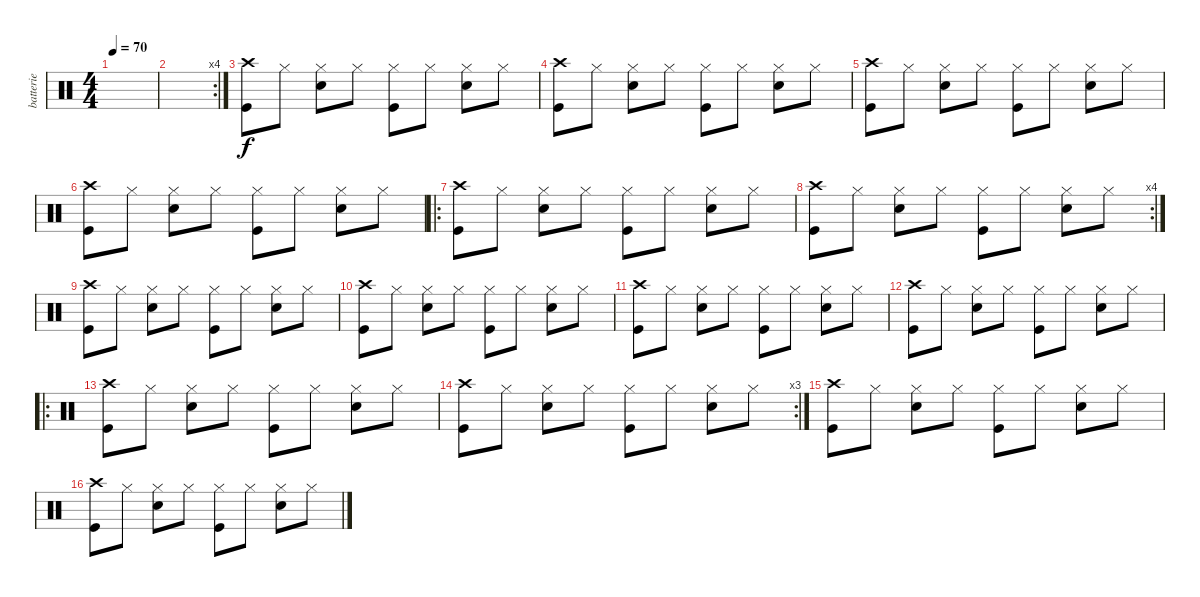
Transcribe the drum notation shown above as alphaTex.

\track ("batterie" "batterie") {instrument percussion}
\staff {score}
\articulation defaults
\ts (4 4)
\tempo 70
\clef neutral
\ks c
|
\rc 4
|
("Crash high (hit)" "Kick (hit)").8 "Hi-Hat (closed)".8 ("Hi-Hat (closed)" "Snare (hit) 2").8 "Hi-Hat (closed)".8 ("Hi-Hat (closed)" "Kick (hit)").8 "Hi-Hat (closed)".8 ("Hi-Hat (closed)" "Snare (hit) 2").8 "Hi-Hat (closed)".8 |
("Crash high (hit)" "Kick (hit)").8 "Hi-Hat (closed)".8 ("Hi-Hat (closed)" "Snare (hit) 2").8 "Hi-Hat (closed)".8 ("Hi-Hat (closed)" "Kick (hit)").8 "Hi-Hat (closed)".8 ("Hi-Hat (closed)" "Snare (hit) 2").8 "Hi-Hat (closed)".8 |
("Crash high (hit)" "Kick (hit)").8 "Hi-Hat (closed)".8 ("Hi-Hat (closed)" "Snare (hit) 2").8 "Hi-Hat (closed)".8 ("Hi-Hat (closed)" "Kick (hit)").8 "Hi-Hat (closed)".8 ("Hi-Hat (closed)" "Snare (hit) 2").8 "Hi-Hat (closed)".8 |
("Crash high (hit)" "Kick (hit)").8 "Hi-Hat (closed)".8 ("Hi-Hat (closed)" "Snare (hit) 2").8 "Hi-Hat (closed)".8 ("Hi-Hat (closed)" "Kick (hit)").8 "Hi-Hat (closed)".8 ("Hi-Hat (closed)" "Snare (hit) 2").8 "Hi-Hat (closed)".8 |
\ro
("Crash high (hit)" "Kick (hit)").8 "Hi-Hat (closed)".8 ("Hi-Hat (closed)" "Snare (hit) 2").8 "Hi-Hat (closed)".8 ("Hi-Hat (closed)" "Kick (hit)").8 "Hi-Hat (closed)".8 ("Hi-Hat (closed)" "Snare (hit) 2").8 "Hi-Hat (closed)".8 |
\rc 4
("Crash high (hit)" "Kick (hit)").8 "Hi-Hat (closed)".8 ("Hi-Hat (closed)" "Snare (hit) 2").8 "Hi-Hat (closed)".8 ("Hi-Hat (closed)" "Kick (hit)").8 "Hi-Hat (closed)".8 ("Hi-Hat (closed)" "Snare (hit) 2").8 "Hi-Hat (closed)".8 |
("Crash high (hit)" "Kick (hit)").8 "Hi-Hat (closed)".8 ("Hi-Hat (closed)" "Snare (hit) 2").8 "Hi-Hat (closed)".8 ("Hi-Hat (closed)" "Kick (hit)").8 "Hi-Hat (closed)".8 ("Hi-Hat (closed)" "Snare (hit) 2").8 "Hi-Hat (closed)".8 |
("Crash high (hit)" "Kick (hit)").8 "Hi-Hat (closed)".8 ("Hi-Hat (closed)" "Snare (hit) 2").8 "Hi-Hat (closed)".8 ("Hi-Hat (closed)" "Kick (hit)").8 "Hi-Hat (closed)".8 ("Hi-Hat (closed)" "Snare (hit) 2").8 "Hi-Hat (closed)".8 |
("Crash high (hit)" "Kick (hit)").8 "Hi-Hat (closed)".8 ("Hi-Hat (closed)" "Snare (hit) 2").8 "Hi-Hat (closed)".8 ("Hi-Hat (closed)" "Kick (hit)").8 "Hi-Hat (closed)".8 ("Hi-Hat (closed)" "Snare (hit) 2").8 "Hi-Hat (closed)".8 |
("Crash high (hit)" "Kick (hit)").8 "Hi-Hat (closed)".8 ("Hi-Hat (closed)" "Snare (hit) 2").8 "Hi-Hat (closed)".8 ("Hi-Hat (closed)" "Kick (hit)").8 "Hi-Hat (closed)".8 ("Hi-Hat (closed)" "Snare (hit) 2").8 "Hi-Hat (closed)".8 |
\ro
("Crash high (hit)" "Kick (hit)").8 "Hi-Hat (closed)".8 ("Hi-Hat (closed)" "Snare (hit) 2").8 "Hi-Hat (closed)".8 ("Hi-Hat (closed)" "Kick (hit)").8 "Hi-Hat (closed)".8 ("Hi-Hat (closed)" "Snare (hit) 2").8 "Hi-Hat (closed)".8 |
\rc 3
("Crash high (hit)" "Kick (hit)").8 "Hi-Hat (closed)".8 ("Hi-Hat (closed)" "Snare (hit) 2").8 "Hi-Hat (closed)".8 ("Hi-Hat (closed)" "Kick (hit)").8 "Hi-Hat (closed)".8 ("Hi-Hat (closed)" "Snare (hit) 2").8 "Hi-Hat (closed)".8 |
("Crash high (hit)" "Kick (hit)").8 "Hi-Hat (closed)".8 ("Hi-Hat (closed)" "Snare (hit) 2").8 "Hi-Hat (closed)".8 ("Hi-Hat (closed)" "Kick (hit)").8 "Hi-Hat (closed)".8 ("Hi-Hat (closed)" "Snare (hit) 2").8 "Hi-Hat (closed)".8 |
("Crash high (hit)" "Kick (hit)").8 "Hi-Hat (closed)".8 ("Hi-Hat (closed)" "Snare (hit) 2").8 "Hi-Hat (closed)".8 ("Hi-Hat (closed)" "Kick (hit)").8 "Hi-Hat (closed)".8 ("Hi-Hat (closed)" "Snare (hit) 2").8 "Hi-Hat (closed)".8
